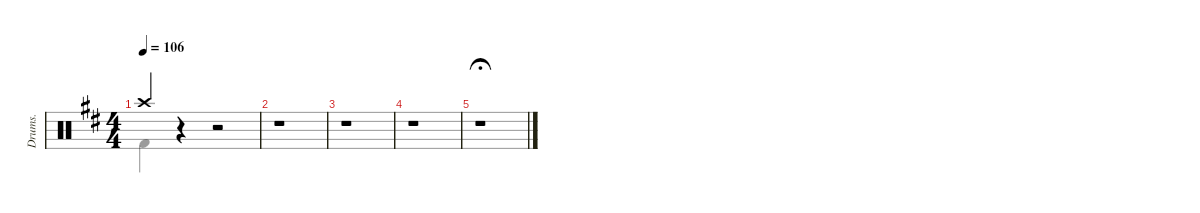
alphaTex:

\defaultSystemsLayout 4
\hideDynamics
\track ("Drumkit" "Drums.") {defaultSystemsLayout 4 instrument percussion}
\staff {score}
\articulation defaults
\voice
\ts (4 4)
\tempo 106
\clef neutral
\ks d "Crash high (hit)"{acc forcenatural}.4{dy mf}
r.4 r.2 |
r.1 |
r.1 |
r.1 |
r.1{fermata (medium 1)}
\voice
\clef neutral
\ottava regular
\simile none
\ks d "Kick (hit) 2"{acc forcenatural}.4{dy mf}
r.4 r.2 |
r.1 |
r.1 |
r.1 |
r.1{fermata (medium 1)}
